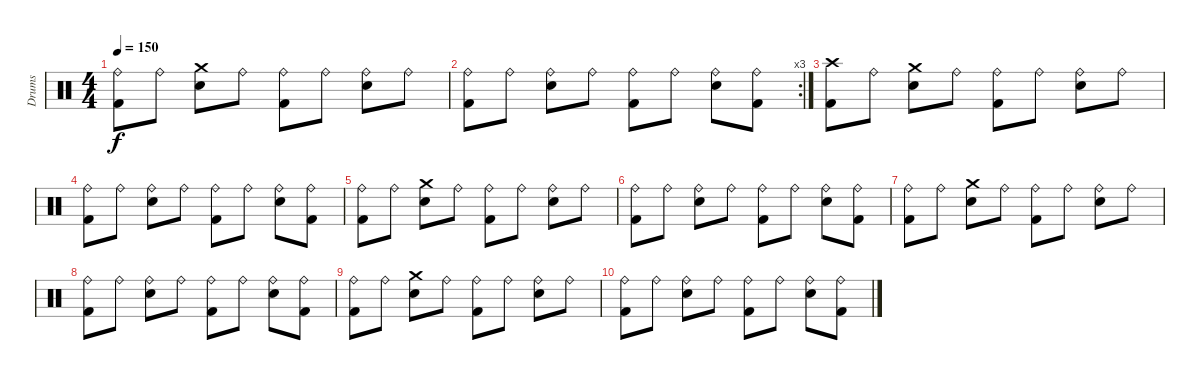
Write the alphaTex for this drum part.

\track ("Drums" "Drums") {instrument percussion}
\staff {score}
\articulation defaults
\ts (4 4)
\tempo 150
\clef neutral
\ks c
("Ride (bell)" "Kick (hit) 2").8{dy f} "Ride (bell)".8 ("Crash medium (hit)" "Snare (hit) 2").8 "Ride (bell)".8 ("Ride (bell)" "Kick (hit) 2").8 "Ride (bell)".8 ("Ride (bell)" "Snare (hit) 2").8 "Ride (bell)".8 |
\rc 3
("Ride (bell)" "Kick (hit) 2").8 "Ride (bell)".8 ("Ride (bell)" "Snare (hit) 2").8 "Ride (bell)".8 ("Ride (bell)" "Kick (hit) 2").8 "Ride (bell)".8 ("Ride (bell)" "Snare (hit) 2").8 ("Ride (bell)" "Kick (hit) 2").8 |
("Crash high (hit)" "Kick (hit) 2").8{volume 7} "Ride (bell)".8 ("Crash medium (hit)" "Snare (hit) 2").8 "Ride (bell)".8 ("Ride (bell)" "Kick (hit) 2").8 "Ride (bell)".8 ("Ride (bell)" "Snare (hit) 2").8 "Ride (bell)".8 |
("Ride (bell)" "Kick (hit) 2").8 "Ride (bell)".8 ("Ride (bell)" "Snare (hit) 2").8 "Ride (bell)".8 ("Ride (bell)" "Kick (hit) 2").8 "Ride (bell)".8 ("Ride (bell)" "Snare (hit) 2").8 ("Ride (bell)" "Kick (hit) 2").8 |
("Ride (bell)" "Kick (hit) 2").8 "Ride (bell)".8 ("Crash medium (hit)" "Snare (hit) 2").8 "Ride (bell)".8 ("Ride (bell)" "Kick (hit) 2").8 "Ride (bell)".8 ("Ride (bell)" "Snare (hit) 2").8 "Ride (bell)".8 |
("Ride (bell)" "Kick (hit) 2").8 "Ride (bell)".8 ("Ride (bell)" "Snare (hit) 2").8 "Ride (bell)".8 ("Ride (bell)" "Kick (hit) 2").8 "Ride (bell)".8 ("Ride (bell)" "Snare (hit) 2").8 ("Ride (bell)" "Kick (hit) 2").8 |
("Ride (bell)" "Kick (hit) 2").8{volume 0} "Ride (bell)".8 ("Crash medium (hit)" "Snare (hit) 2").8 "Ride (bell)".8 ("Ride (bell)" "Kick (hit) 2").8 "Ride (bell)".8 ("Ride (bell)" "Snare (hit) 2").8 "Ride (bell)".8 |
("Ride (bell)" "Kick (hit) 2").8 "Ride (bell)".8 ("Ride (bell)" "Snare (hit) 2").8 "Ride (bell)".8 ("Ride (bell)" "Kick (hit) 2").8 "Ride (bell)".8 ("Ride (bell)" "Snare (hit) 2").8 ("Ride (bell)" "Kick (hit) 2").8 |
("Ride (bell)" "Kick (hit) 2").8 "Ride (bell)".8 ("Crash medium (hit)" "Snare (hit) 2").8 "Ride (bell)".8 ("Ride (bell)" "Kick (hit) 2").8 "Ride (bell)".8 ("Ride (bell)" "Snare (hit) 2").8 "Ride (bell)".8 |
("Ride (bell)" "Kick (hit) 2").8 "Ride (bell)".8 ("Ride (bell)" "Snare (hit) 2").8 "Ride (bell)".8 ("Ride (bell)" "Kick (hit) 2").8 "Ride (bell)".8 ("Ride (bell)" "Snare (hit) 2").8 ("Ride (bell)" "Kick (hit) 2").8
